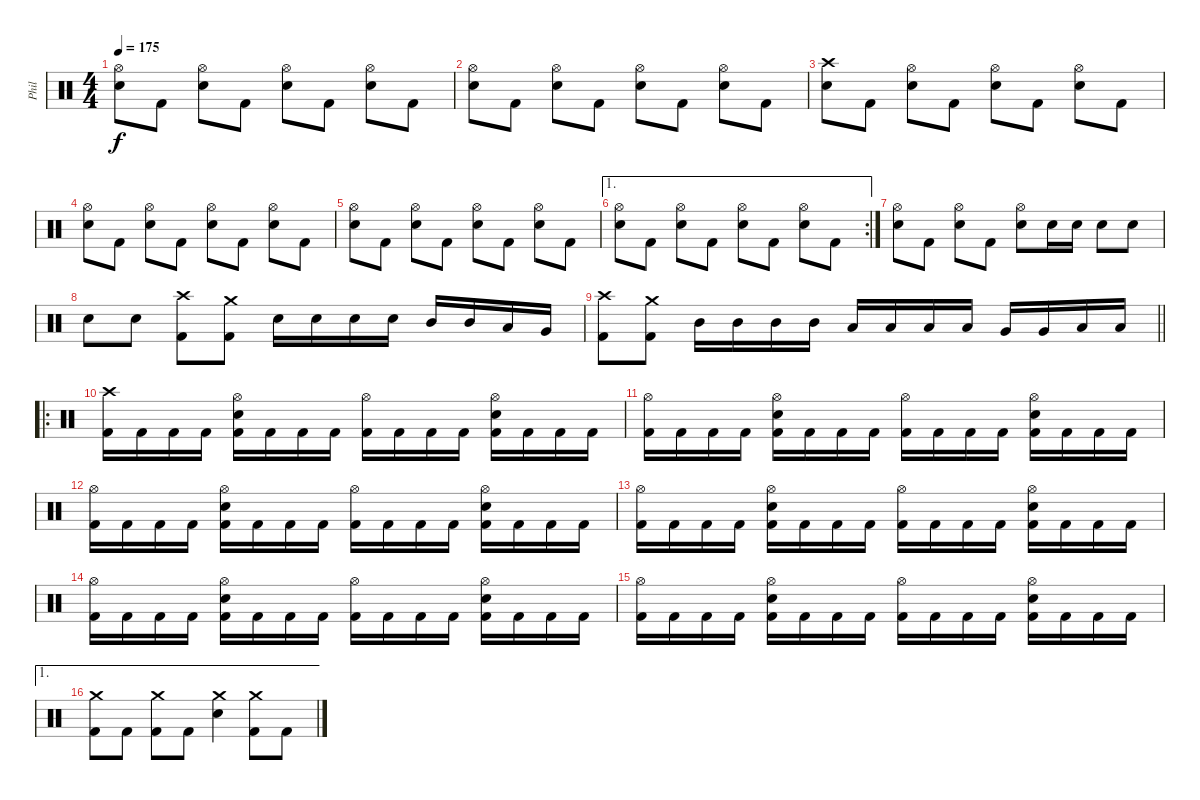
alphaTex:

\track ("Phil" "Phil") {instrument percussion}
\staff {score}
\articulation defaults
\ts (4 4)
\tempo 175
\clef neutral
\ks c
("Hi-Hat (open)" "Electric Snare (hit)").8{dy f} "Kick (hit) 2".8 ("Hi-Hat (open)" "Electric Snare (hit)").8 "Kick (hit) 2".8 ("Hi-Hat (open)" "Electric Snare (hit)").8 "Kick (hit) 2".8 ("Hi-Hat (open)" "Electric Snare (hit)").8 "Kick (hit) 2".8 |
("Hi-Hat (open)" "Electric Snare (hit)").8 "Kick (hit) 2".8 ("Hi-Hat (open)" "Electric Snare (hit)").8 "Kick (hit) 2".8 ("Hi-Hat (open)" "Electric Snare (hit)").8 "Kick (hit) 2".8 ("Hi-Hat (open)" "Electric Snare (hit)").8 "Kick (hit) 2".8 |
("Crash high (hit)" "Electric Snare (hit)").8 "Kick (hit) 2".8 ("Hi-Hat (open)" "Electric Snare (hit)").8 "Kick (hit) 2".8 ("Hi-Hat (open)" "Electric Snare (hit)").8 "Kick (hit) 2".8 ("Hi-Hat (open)" "Electric Snare (hit)").8 "Kick (hit) 2".8 |
("Hi-Hat (open)" "Electric Snare (hit)").8 "Kick (hit) 2".8 ("Hi-Hat (open)" "Electric Snare (hit)").8 "Kick (hit) 2".8 ("Hi-Hat (open)" "Electric Snare (hit)").8 "Kick (hit) 2".8 ("Hi-Hat (open)" "Electric Snare (hit)").8 "Kick (hit) 2".8 |
("Hi-Hat (open)" "Electric Snare (hit)").8 "Kick (hit) 2".8 ("Hi-Hat (open)" "Electric Snare (hit)").8 "Kick (hit) 2".8 ("Hi-Hat (open)" "Electric Snare (hit)").8 "Kick (hit) 2".8 ("Hi-Hat (open)" "Electric Snare (hit)").8 "Kick (hit) 2".8 |
\ae 1
\rc 2
("Hi-Hat (open)" "Electric Snare (hit)").8 "Kick (hit) 2".8 ("Hi-Hat (open)" "Electric Snare (hit)").8 "Kick (hit) 2".8 ("Hi-Hat (open)" "Electric Snare (hit)").8 "Kick (hit) 2".8 ("Hi-Hat (open)" "Electric Snare (hit)").8 "Kick (hit) 2".8 |
("Hi-Hat (open)" "Electric Snare (hit)").8 "Kick (hit) 2".8 ("Hi-Hat (open)" "Electric Snare (hit)").8 "Kick (hit) 2".8 ("Hi-Hat (open)" "Electric Snare (hit)").8 "Electric Snare (hit)".16 "Electric Snare (hit)".16 "Electric Snare (hit)".8 "Electric Snare (hit)".8 |
"Electric Snare (hit)".8 "Electric Snare (hit)".8 ("Crash high (hit)" "Kick (hit) 2").8 ("Crash medium (hit)" "Kick (hit) 2").8 "Electric Snare (hit)".16 "Electric Snare (hit)".16 "Electric Snare (hit)".16 "Electric Snare (hit)".16 "Mid Tom (hit)".16 "Mid Tom (hit)".16 "Low Tom (hit)".16 "Very Low Tom (hit)".16 |
\barLineRight lightlight
("Crash high (hit)" "Kick (hit) 2").8 ("Crash medium (hit)" "Kick (hit) 2").8 "Mid Tom (hit)".16 "Mid Tom (hit)".16 "Mid Tom (hit)".16 "Mid Tom (hit)".16 "Low Tom (hit)".16 "Low Tom (hit)".16 "Low Tom (hit)".16 "Low Tom (hit)".16 "Very Low Tom (hit)".16 "Very Low Tom (hit)".16 "Low Floor Tom (hit)".16 "Low Floor Tom (hit)".16 |
\ro
\section ("" "")
("Crash high (hit)" "Kick (hit) 2").16 "Kick (hit) 2".16 "Kick (hit) 2".16 "Kick (hit) 2".16 ("Hi-Hat (open)" "Electric Snare (hit)" "Kick (hit) 2").16 "Kick (hit) 2".16 "Kick (hit) 2".16 "Kick (hit) 2".16 ("Hi-Hat (open)" "Kick (hit) 2").16 "Kick (hit) 2".16 "Kick (hit) 2".16 "Kick (hit) 2".16 ("Hi-Hat (open)" "Electric Snare (hit)" "Kick (hit) 2").16 "Kick (hit) 2".16 "Kick (hit) 2".16 "Kick (hit) 2".16 |
("Hi-Hat (open)" "Kick (hit) 2").16 "Kick (hit) 2".16 "Kick (hit) 2".16 "Kick (hit) 2".16 ("Hi-Hat (open)" "Electric Snare (hit)" "Kick (hit) 2").16 "Kick (hit) 2".16 "Kick (hit) 2".16 "Kick (hit) 2".16 ("Hi-Hat (open)" "Kick (hit) 2").16 "Kick (hit) 2".16 "Kick (hit) 2".16 "Kick (hit) 2".16 ("Hi-Hat (open)" "Electric Snare (hit)" "Kick (hit) 2").16 "Kick (hit) 2".16 "Kick (hit) 2".16 "Kick (hit) 2".16 |
("Hi-Hat (open)" "Kick (hit) 2").16 "Kick (hit) 2".16 "Kick (hit) 2".16 "Kick (hit) 2".16 ("Hi-Hat (open)" "Electric Snare (hit)" "Kick (hit) 2").16 "Kick (hit) 2".16 "Kick (hit) 2".16 "Kick (hit) 2".16 ("Hi-Hat (open)" "Kick (hit) 2").16 "Kick (hit) 2".16 "Kick (hit) 2".16 "Kick (hit) 2".16 ("Hi-Hat (open)" "Electric Snare (hit)" "Kick (hit) 2").16 "Kick (hit) 2".16 "Kick (hit) 2".16 "Kick (hit) 2".16 |
("Hi-Hat (open)" "Kick (hit) 2").16 "Kick (hit) 2".16 "Kick (hit) 2".16 "Kick (hit) 2".16 ("Hi-Hat (open)" "Electric Snare (hit)" "Kick (hit) 2").16 "Kick (hit) 2".16 "Kick (hit) 2".16 "Kick (hit) 2".16 ("Hi-Hat (open)" "Kick (hit) 2").16 "Kick (hit) 2".16 "Kick (hit) 2".16 "Kick (hit) 2".16 ("Hi-Hat (open)" "Electric Snare (hit)" "Kick (hit) 2").16 "Kick (hit) 2".16 "Kick (hit) 2".16 "Kick (hit) 2".16 |
("Hi-Hat (open)" "Kick (hit) 2").16 "Kick (hit) 2".16 "Kick (hit) 2".16 "Kick (hit) 2".16 ("Hi-Hat (open)" "Electric Snare (hit)" "Kick (hit) 2").16 "Kick (hit) 2".16 "Kick (hit) 2".16 "Kick (hit) 2".16 ("Hi-Hat (open)" "Kick (hit) 2").16 "Kick (hit) 2".16 "Kick (hit) 2".16 "Kick (hit) 2".16 ("Hi-Hat (open)" "Electric Snare (hit)" "Kick (hit) 2").16 "Kick (hit) 2".16 "Kick (hit) 2".16 "Kick (hit) 2".16 |
("Hi-Hat (open)" "Kick (hit) 2").16 "Kick (hit) 2".16 "Kick (hit) 2".16 "Kick (hit) 2".16 ("Hi-Hat (open)" "Electric Snare (hit)" "Kick (hit) 2").16 "Kick (hit) 2".16 "Kick (hit) 2".16 "Kick (hit) 2".16 ("Hi-Hat (open)" "Kick (hit) 2").16 "Kick (hit) 2".16 "Kick (hit) 2".16 "Kick (hit) 2".16 ("Hi-Hat (open)" "Electric Snare (hit)" "Kick (hit) 2").16 "Kick (hit) 2".16 "Kick (hit) 2".16 "Kick (hit) 2".16 |
\ae 1
("Crash medium (hit)" "Kick (hit) 2").8 "Kick (hit) 2".8 ("Crash medium (hit)" "Kick (hit) 2").8 "Kick (hit) 2".8 ("Crash medium (hit)" "Electric Snare (hit)").4 ("Crash medium (hit)" "Kick (hit) 2").8 "Kick (hit) 2".8
